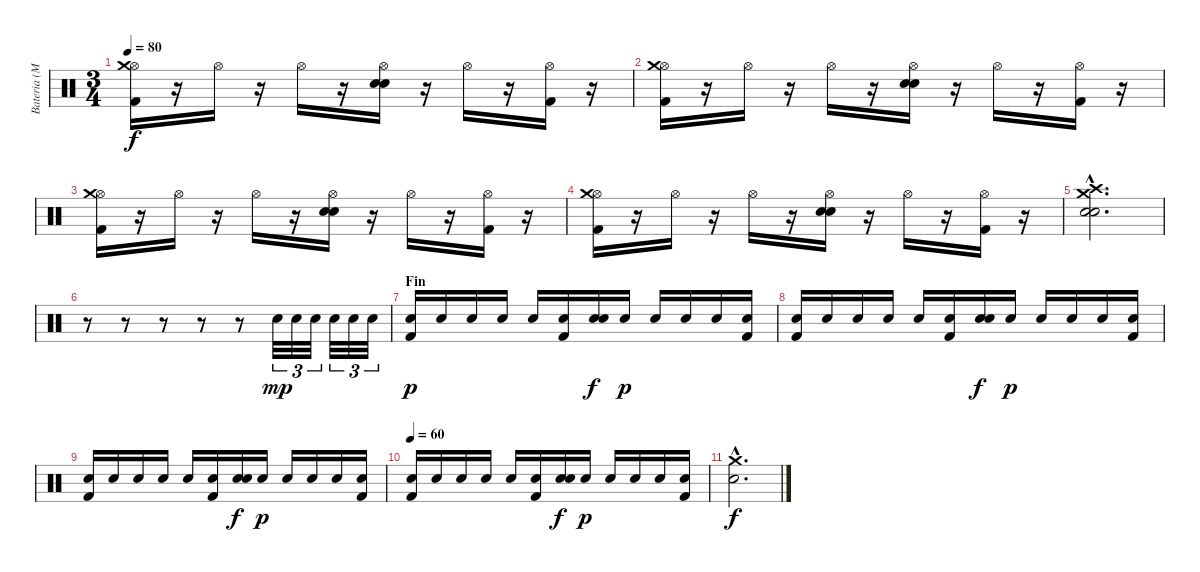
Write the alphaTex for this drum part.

\track ("Bateria (Matt)" "Bateria (M") {instrument percussion}
\staff {score}
\articulation defaults
\ts (3 4)
\tempo 80
\clef neutral
\ks c
("Hi-Hat (open)" "Crash medium (hit)" "Kick (hit) 2").16{dy f} r.16 "Hi-Hat (open)".16 r.16 "Hi-Hat (open)".16 r.16 ("Hi-Hat (open)" "Electric Snare (hit)" "Snare (hit) 2").16 r.16 "Hi-Hat (open)".16 r.16 ("Hi-Hat (open)" "Kick (hit) 2").16 r.16 |
("Hi-Hat (open)" "Crash medium (hit)" "Kick (hit) 2").16 r.16 "Hi-Hat (open)".16 r.16 "Hi-Hat (open)".16 r.16 ("Hi-Hat (open)" "Electric Snare (hit)" "Snare (hit) 2").16 r.16 "Hi-Hat (open)".16 r.16 ("Hi-Hat (open)" "Kick (hit) 2").16 r.16 |
("Hi-Hat (open)" "Crash medium (hit)" "Kick (hit) 2").16 r.16 "Hi-Hat (open)".16 r.16 "Hi-Hat (open)".16 r.16 ("Hi-Hat (open)" "Electric Snare (hit)" "Snare (hit) 2").16 r.16 "Hi-Hat (open)".16 r.16 ("Hi-Hat (open)" "Kick (hit) 2").16 r.16 |
("Hi-Hat (open)" "Crash medium (hit)" "Kick (hit) 2").16 r.16 "Hi-Hat (open)".16 r.16 "Hi-Hat (open)".16 r.16 ("Hi-Hat (open)" "Electric Snare (hit)" "Snare (hit) 2").16 r.16 "Hi-Hat (open)".16 r.16 ("Hi-Hat (open)" "Kick (hit) 2").16 r.16 |
("Crash medium (hit)"{hac} "Crash high (hit)"{hac} "Electric Snare (hit)"{hac} "Snare (hit) 2"{hac}).2{d} |
r.8 r.8 r.8 r.8 r.8 "Electric Snare (hit)".32{tu (3 2) dy mp} "Electric Snare (hit)".32{tu (3 2)} "Electric Snare (hit)".32{tu (3 2)} "Electric Snare (hit)".32{tu (3 2)} "Electric Snare (hit)".32{tu (3 2)} "Electric Snare (hit)".32{tu (3 2)} |
\section ("" "Fin")
("Electric Snare (hit)" "Kick (hit) 2").16{dy p} "Electric Snare (hit)".16 "Electric Snare (hit)".16 "Electric Snare (hit)".16 "Electric Snare (hit)".16 ("Electric Snare (hit)" "Kick (hit) 2").16 ("Snare (hit) 2" "Electric Snare (hit)").16{dy f} "Electric Snare (hit)".16{dy p} "Electric Snare (hit)".16 "Electric Snare (hit)".16 "Electric Snare (hit)".16 ("Electric Snare (hit)" "Kick (hit) 2").16 |
("Electric Snare (hit)" "Kick (hit) 2").16 "Electric Snare (hit)".16 "Electric Snare (hit)".16 "Electric Snare (hit)".16 "Electric Snare (hit)".16 ("Electric Snare (hit)" "Kick (hit) 2").16 ("Snare (hit) 2" "Electric Snare (hit)").16{dy f} "Electric Snare (hit)".16{dy p} "Electric Snare (hit)".16 "Electric Snare (hit)".16 "Electric Snare (hit)".16 ("Electric Snare (hit)" "Kick (hit) 2").16 |
("Electric Snare (hit)" "Kick (hit) 2").16 "Electric Snare (hit)".16 "Electric Snare (hit)".16 "Electric Snare (hit)".16 "Electric Snare (hit)".16 ("Electric Snare (hit)" "Kick (hit) 2").16 ("Snare (hit) 2" "Electric Snare (hit)").16{dy f} "Electric Snare (hit)".16{dy p} "Electric Snare (hit)".16 "Electric Snare (hit)".16 "Electric Snare (hit)".16 ("Electric Snare (hit)" "Kick (hit) 2").16 |
\tempo 60
("Electric Snare (hit)" "Kick (hit) 2").16 "Electric Snare (hit)".16 "Electric Snare (hit)".16 "Electric Snare (hit)".16 "Electric Snare (hit)".16 ("Electric Snare (hit)" "Kick (hit) 2").16 ("Snare (hit) 2" "Electric Snare (hit)").16{dy f} "Electric Snare (hit)".16{dy p} "Electric Snare (hit)".16 "Electric Snare (hit)".16 "Electric Snare (hit)".16 ("Electric Snare (hit)" "Kick (hit) 2").16 |
("Crash medium (hit)"{hac} "Electric Snare (hit)"{hac}).2{d dy f}
